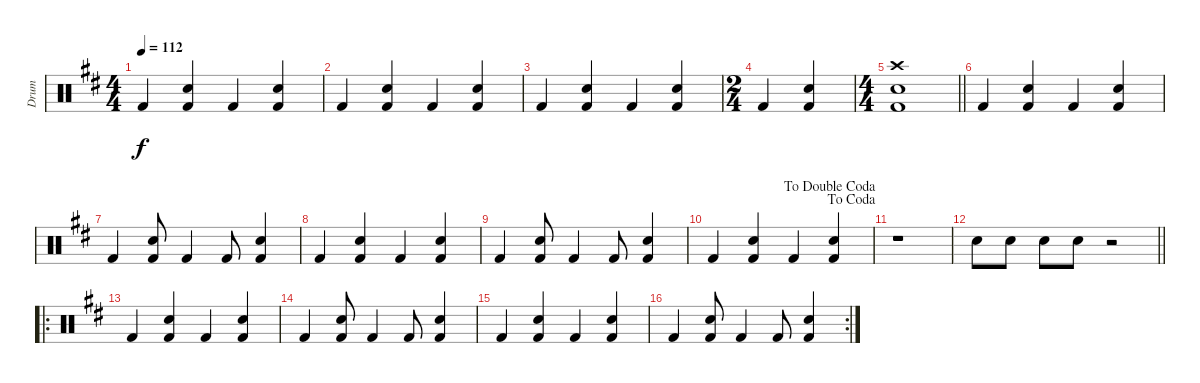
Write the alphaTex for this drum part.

\track ("Drum" "Drum") {instrument percussion}
\staff {score}
\articulation defaults
\ts (4 4)
\tempo 112
\clef neutral
\ks d "Kick (hit) 2".4{dy f}
("Snare (hit) 2" "Kick (hit) 2").4 "Kick (hit) 2".4 ("Snare (hit) 2" "Kick (hit) 2").4 |
"Kick (hit) 2".4 ("Snare (hit) 2" "Kick (hit) 2").4 "Kick (hit) 2".4 ("Snare (hit) 2" "Kick (hit) 2").4 |
"Kick (hit) 2".4 ("Snare (hit) 2" "Kick (hit) 2").4 "Kick (hit) 2".4 ("Snare (hit) 2" "Kick (hit) 2").4 |
\ts (2 4)
"Kick (hit) 2".4 ("Snare (hit) 2" "Kick (hit) 2").4 |
\ts (4 4)
\barLineRight lightlight
("Snare (hit) 2" "Kick (hit) 2" "Crash high (hit)").1 |
"Kick (hit) 2".4 ("Snare (hit) 2" "Kick (hit) 2").4 "Kick (hit) 2".4 ("Snare (hit) 2" "Kick (hit) 2").4 |
"Kick (hit) 2".4 ("Snare (hit) 2" "Kick (hit) 2").8 "Kick (hit) 2".4 "Kick (hit) 2".8 ("Snare (hit) 2" "Kick (hit) 2").4 |
"Kick (hit) 2".4 ("Snare (hit) 2" "Kick (hit) 2").4 "Kick (hit) 2".4 ("Snare (hit) 2" "Kick (hit) 2").4 |
"Kick (hit) 2".4 ("Snare (hit) 2" "Kick (hit) 2").8 "Kick (hit) 2".4 "Kick (hit) 2".8 ("Snare (hit) 2" "Kick (hit) 2").4 |
\jump dacoda
\jump dadoublecoda "Kick (hit) 2".4
("Snare (hit) 2" "Kick (hit) 2").4 "Kick (hit) 2".4 ("Snare (hit) 2" "Kick (hit) 2").4 |
r.1 |
\barLineRight lightlight "Electric Snare (hit)".8 "Electric Snare (hit)".8 "Electric Snare (hit)".8 "Electric Snare (hit)".8
r.2 |
\ro "Kick (hit) 2".4
("Snare (hit) 2" "Kick (hit) 2").4 "Kick (hit) 2".4 ("Snare (hit) 2" "Kick (hit) 2").4 |
"Kick (hit) 2".4 ("Snare (hit) 2" "Kick (hit) 2").8 "Kick (hit) 2".4 "Kick (hit) 2".8 ("Snare (hit) 2" "Kick (hit) 2").4 |
"Kick (hit) 2".4 ("Snare (hit) 2" "Kick (hit) 2").4 "Kick (hit) 2".4 ("Snare (hit) 2" "Kick (hit) 2").4 |
\rc 2 "Kick (hit) 2".4
("Snare (hit) 2" "Kick (hit) 2").8 "Kick (hit) 2".4 "Kick (hit) 2".8 ("Snare (hit) 2" "Kick (hit) 2").4
